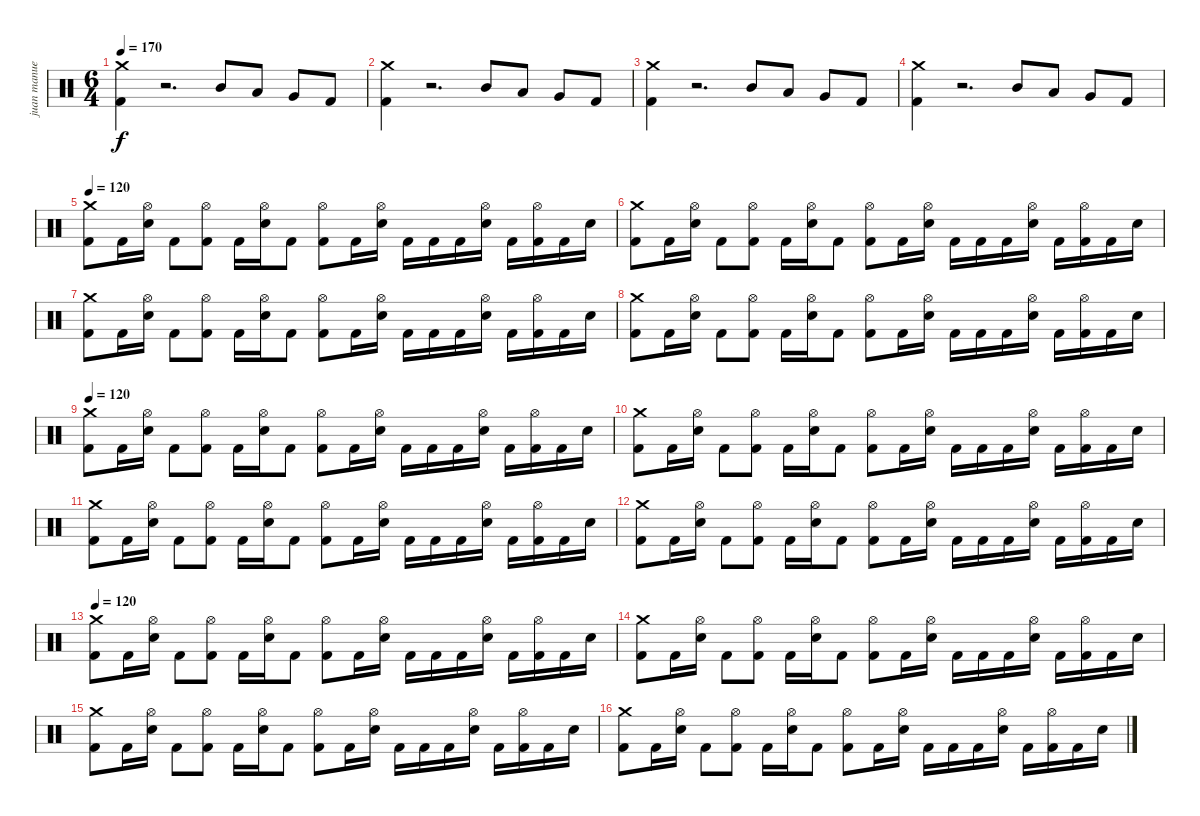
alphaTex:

\track ("juan manuel" "juan manue") {instrument percussion}
\staff {score}
\articulation defaults
\ts (6 4)
\tempo 170
\tempo 120
\tempo 170
\clef neutral
\ks c
("Crash medium (hit)" "Kick (hit) 2").4{dy f} r.2{d} "Mid Tom (hit)".8 "Low Tom (hit)".8 "Very Low Tom (hit)".8 "Kick (hit) 2".8 |
("Crash medium (hit)" "Kick (hit) 2").4 r.2{d} "Mid Tom (hit)".8 "Low Tom (hit)".8 "Very Low Tom (hit)".8 "Kick (hit) 2".8 |
("Crash medium (hit)" "Kick (hit) 2").4 r.2{d} "Mid Tom (hit)".8 "Low Tom (hit)".8 "Very Low Tom (hit)".8 "Kick (hit) 2".8 |
("Crash medium (hit)" "Kick (hit) 2").4 r.2{d} "Mid Tom (hit)".8 "Low Tom (hit)".8 "Very Low Tom (hit)".8 "Kick (hit) 2".8 |
\tempo 120
("Crash medium (hit)" "Kick (hit) 2").8 "Kick (hit) 2".16 ("Hi-Hat (open)" "Electric Snare (hit)").16 "Kick (hit) 2".8 ("Hi-Hat (open)" "Kick (hit) 2").8 "Kick (hit) 2".16 ("Hi-Hat (open)" "Electric Snare (hit)").16 "Kick (hit) 2".8 ("Hi-Hat (open)" "Kick (hit) 2").8 "Kick (hit) 2".16 ("Hi-Hat (open)" "Electric Snare (hit)").16 "Kick (hit) 2".16 "Kick (hit) 2".16 "Kick (hit) 2".16 ("Hi-Hat (open)" "Electric Snare (hit)").16 "Kick (hit) 2".16 ("Hi-Hat (open)" "Kick (hit) 2").16 "Kick (hit) 2".16 "Electric Snare (hit)".16 |
("Crash medium (hit)" "Kick (hit) 2").8 "Kick (hit) 2".16 ("Hi-Hat (open)" "Electric Snare (hit)").16 "Kick (hit) 2".8 ("Hi-Hat (open)" "Kick (hit) 2").8 "Kick (hit) 2".16 ("Hi-Hat (open)" "Electric Snare (hit)").16 "Kick (hit) 2".8 ("Hi-Hat (open)" "Kick (hit) 2").8 "Kick (hit) 2".16 ("Hi-Hat (open)" "Electric Snare (hit)").16 "Kick (hit) 2".16 "Kick (hit) 2".16 "Kick (hit) 2".16 ("Hi-Hat (open)" "Electric Snare (hit)").16 "Kick (hit) 2".16 ("Hi-Hat (open)" "Kick (hit) 2").16 "Kick (hit) 2".16 "Electric Snare (hit)".16 |
("Crash medium (hit)" "Kick (hit) 2").8 "Kick (hit) 2".16 ("Hi-Hat (open)" "Electric Snare (hit)").16 "Kick (hit) 2".8 ("Hi-Hat (open)" "Kick (hit) 2").8 "Kick (hit) 2".16 ("Hi-Hat (open)" "Electric Snare (hit)").16 "Kick (hit) 2".8 ("Hi-Hat (open)" "Kick (hit) 2").8 "Kick (hit) 2".16 ("Hi-Hat (open)" "Electric Snare (hit)").16 "Kick (hit) 2".16 "Kick (hit) 2".16 "Kick (hit) 2".16 ("Hi-Hat (open)" "Electric Snare (hit)").16 "Kick (hit) 2".16 ("Hi-Hat (open)" "Kick (hit) 2").16 "Kick (hit) 2".16 "Electric Snare (hit)".16 |
("Crash medium (hit)" "Kick (hit) 2").8 "Kick (hit) 2".16 ("Hi-Hat (open)" "Electric Snare (hit)").16 "Kick (hit) 2".8 ("Hi-Hat (open)" "Kick (hit) 2").8 "Kick (hit) 2".16 ("Hi-Hat (open)" "Electric Snare (hit)").16 "Kick (hit) 2".8 ("Hi-Hat (open)" "Kick (hit) 2").8 "Kick (hit) 2".16 ("Hi-Hat (open)" "Electric Snare (hit)").16 "Kick (hit) 2".16 "Kick (hit) 2".16 "Kick (hit) 2".16 ("Hi-Hat (open)" "Electric Snare (hit)").16 "Kick (hit) 2".16 ("Hi-Hat (open)" "Kick (hit) 2").16 "Kick (hit) 2".16 "Electric Snare (hit)".16 |
\tempo 120
("Crash medium (hit)" "Kick (hit) 2").8 "Kick (hit) 2".16 ("Hi-Hat (open)" "Electric Snare (hit)").16 "Kick (hit) 2".8 ("Hi-Hat (open)" "Kick (hit) 2").8 "Kick (hit) 2".16 ("Hi-Hat (open)" "Electric Snare (hit)").16 "Kick (hit) 2".8 ("Hi-Hat (open)" "Kick (hit) 2").8 "Kick (hit) 2".16 ("Hi-Hat (open)" "Electric Snare (hit)").16 "Kick (hit) 2".16 "Kick (hit) 2".16 "Kick (hit) 2".16 ("Hi-Hat (open)" "Electric Snare (hit)").16 "Kick (hit) 2".16 ("Hi-Hat (open)" "Kick (hit) 2").16 "Kick (hit) 2".16 "Electric Snare (hit)".16 |
("Crash medium (hit)" "Kick (hit) 2").8 "Kick (hit) 2".16 ("Hi-Hat (open)" "Electric Snare (hit)").16 "Kick (hit) 2".8 ("Hi-Hat (open)" "Kick (hit) 2").8 "Kick (hit) 2".16 ("Hi-Hat (open)" "Electric Snare (hit)").16 "Kick (hit) 2".8 ("Hi-Hat (open)" "Kick (hit) 2").8 "Kick (hit) 2".16 ("Hi-Hat (open)" "Electric Snare (hit)").16 "Kick (hit) 2".16 "Kick (hit) 2".16 "Kick (hit) 2".16 ("Hi-Hat (open)" "Electric Snare (hit)").16 "Kick (hit) 2".16 ("Hi-Hat (open)" "Kick (hit) 2").16 "Kick (hit) 2".16 "Electric Snare (hit)".16 |
("Crash medium (hit)" "Kick (hit) 2").8 "Kick (hit) 2".16 ("Hi-Hat (open)" "Electric Snare (hit)").16 "Kick (hit) 2".8 ("Hi-Hat (open)" "Kick (hit) 2").8 "Kick (hit) 2".16 ("Hi-Hat (open)" "Electric Snare (hit)").16 "Kick (hit) 2".8 ("Hi-Hat (open)" "Kick (hit) 2").8 "Kick (hit) 2".16 ("Hi-Hat (open)" "Electric Snare (hit)").16 "Kick (hit) 2".16 "Kick (hit) 2".16 "Kick (hit) 2".16 ("Hi-Hat (open)" "Electric Snare (hit)").16 "Kick (hit) 2".16 ("Hi-Hat (open)" "Kick (hit) 2").16 "Kick (hit) 2".16 "Electric Snare (hit)".16 |
("Crash medium (hit)" "Kick (hit) 2").8 "Kick (hit) 2".16 ("Hi-Hat (open)" "Electric Snare (hit)").16 "Kick (hit) 2".8 ("Hi-Hat (open)" "Kick (hit) 2").8 "Kick (hit) 2".16 ("Hi-Hat (open)" "Electric Snare (hit)").16 "Kick (hit) 2".8 ("Hi-Hat (open)" "Kick (hit) 2").8 "Kick (hit) 2".16 ("Hi-Hat (open)" "Electric Snare (hit)").16 "Kick (hit) 2".16 "Kick (hit) 2".16 "Kick (hit) 2".16 ("Hi-Hat (open)" "Electric Snare (hit)").16 "Kick (hit) 2".16 ("Hi-Hat (open)" "Kick (hit) 2").16 "Kick (hit) 2".16 "Electric Snare (hit)".16 |
\tempo 120
("Crash medium (hit)" "Kick (hit) 2").8 "Kick (hit) 2".16 ("Hi-Hat (open)" "Electric Snare (hit)").16 "Kick (hit) 2".8 ("Hi-Hat (open)" "Kick (hit) 2").8 "Kick (hit) 2".16 ("Hi-Hat (open)" "Electric Snare (hit)").16 "Kick (hit) 2".8 ("Hi-Hat (open)" "Kick (hit) 2").8 "Kick (hit) 2".16 ("Hi-Hat (open)" "Electric Snare (hit)").16 "Kick (hit) 2".16 "Kick (hit) 2".16 "Kick (hit) 2".16 ("Hi-Hat (open)" "Electric Snare (hit)").16 "Kick (hit) 2".16 ("Hi-Hat (open)" "Kick (hit) 2").16 "Kick (hit) 2".16 "Electric Snare (hit)".16 |
("Crash medium (hit)" "Kick (hit) 2").8 "Kick (hit) 2".16 ("Hi-Hat (open)" "Electric Snare (hit)").16 "Kick (hit) 2".8 ("Hi-Hat (open)" "Kick (hit) 2").8 "Kick (hit) 2".16 ("Hi-Hat (open)" "Electric Snare (hit)").16 "Kick (hit) 2".8 ("Hi-Hat (open)" "Kick (hit) 2").8 "Kick (hit) 2".16 ("Hi-Hat (open)" "Electric Snare (hit)").16 "Kick (hit) 2".16 "Kick (hit) 2".16 "Kick (hit) 2".16 ("Hi-Hat (open)" "Electric Snare (hit)").16 "Kick (hit) 2".16 ("Hi-Hat (open)" "Kick (hit) 2").16 "Kick (hit) 2".16 "Electric Snare (hit)".16 |
("Crash medium (hit)" "Kick (hit) 2").8 "Kick (hit) 2".16 ("Hi-Hat (open)" "Electric Snare (hit)").16 "Kick (hit) 2".8 ("Hi-Hat (open)" "Kick (hit) 2").8 "Kick (hit) 2".16 ("Hi-Hat (open)" "Electric Snare (hit)").16 "Kick (hit) 2".8 ("Hi-Hat (open)" "Kick (hit) 2").8 "Kick (hit) 2".16 ("Hi-Hat (open)" "Electric Snare (hit)").16 "Kick (hit) 2".16 "Kick (hit) 2".16 "Kick (hit) 2".16 ("Hi-Hat (open)" "Electric Snare (hit)").16 "Kick (hit) 2".16 ("Hi-Hat (open)" "Kick (hit) 2").16 "Kick (hit) 2".16 "Electric Snare (hit)".16 |
("Crash medium (hit)" "Kick (hit) 2").8 "Kick (hit) 2".16 ("Hi-Hat (open)" "Electric Snare (hit)").16 "Kick (hit) 2".8 ("Hi-Hat (open)" "Kick (hit) 2").8 "Kick (hit) 2".16 ("Hi-Hat (open)" "Electric Snare (hit)").16 "Kick (hit) 2".8 ("Hi-Hat (open)" "Kick (hit) 2").8 "Kick (hit) 2".16 ("Hi-Hat (open)" "Electric Snare (hit)").16 "Kick (hit) 2".16 "Kick (hit) 2".16 "Kick (hit) 2".16 ("Hi-Hat (open)" "Electric Snare (hit)").16 "Kick (hit) 2".16 ("Hi-Hat (open)" "Kick (hit) 2").16 "Kick (hit) 2".16 "Electric Snare (hit)".16
